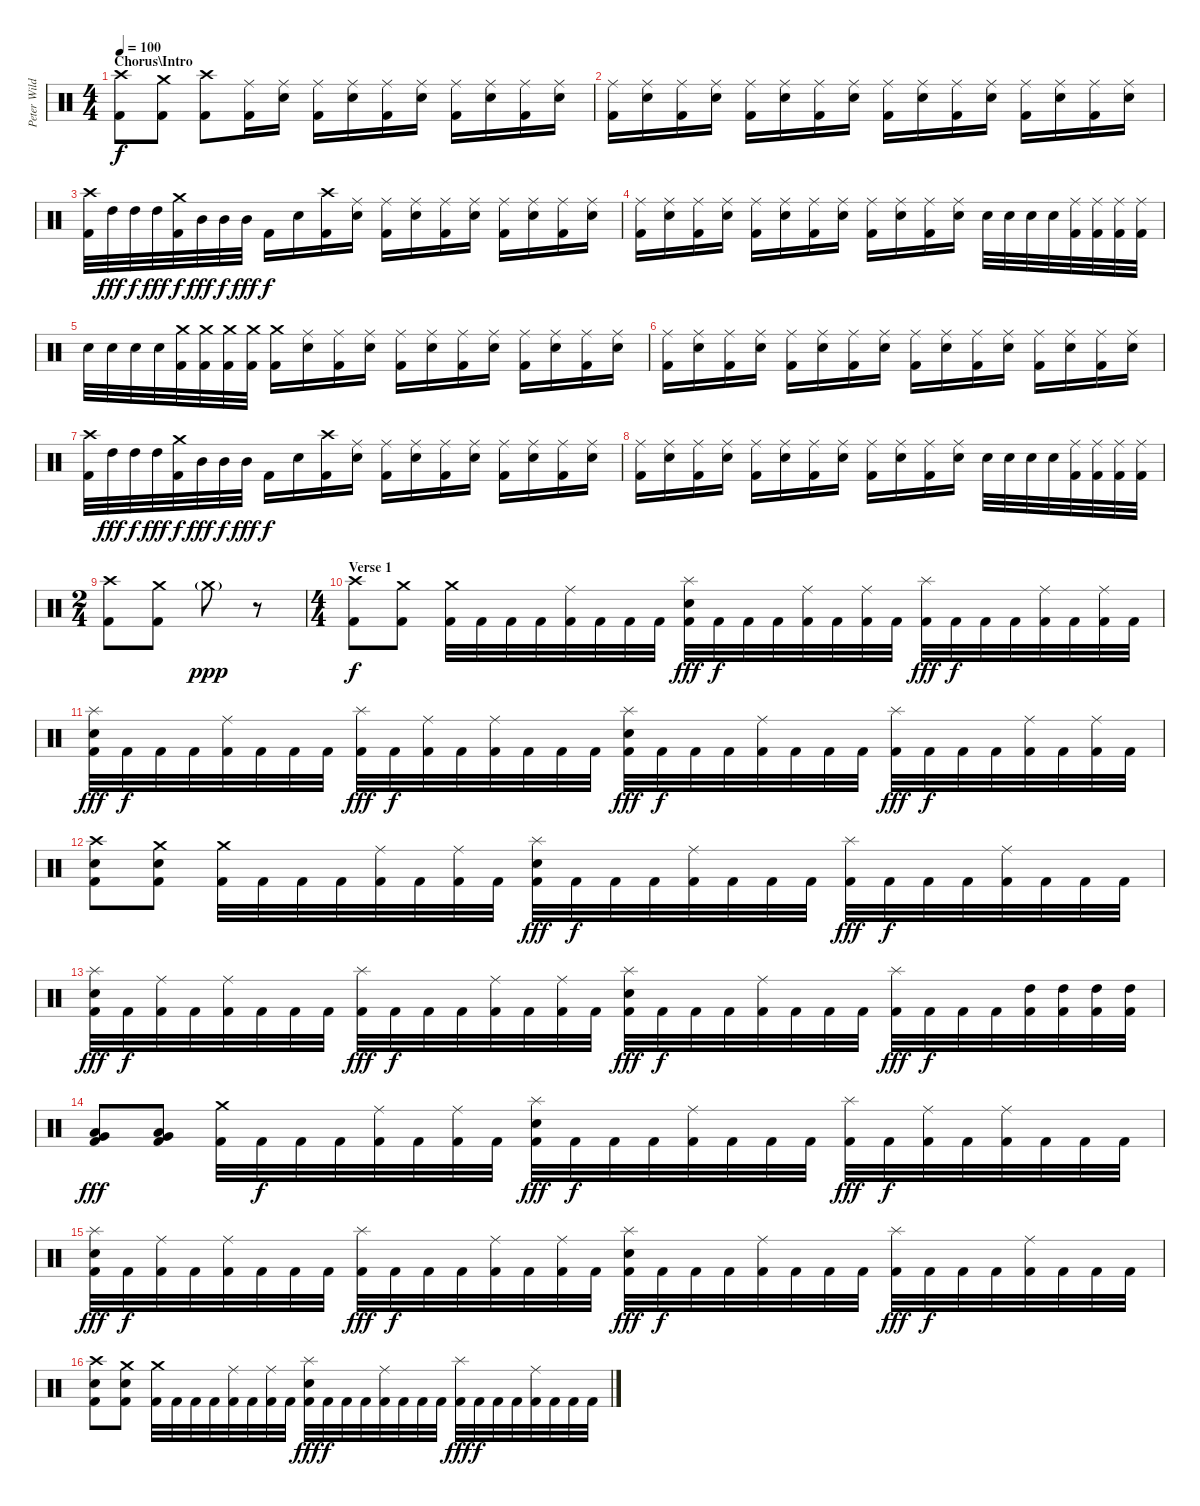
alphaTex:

\track ("Peter Wildoer" "Peter Wild") {instrument percussion}
\staff {score}
\articulation defaults
\ts (4 4)
\section ("" "Chorus\\Intro")
\tempo 100
\clef neutral
\ks c
("Crash high (hit)" "Kick (hit) 2").8{dy f} ("Crash medium (hit)" "Kick (hit) 2").8 ("Crash high (hit)" "Kick (hit) 2").8 ("Ride (middle)" "Kick (hit) 2").16 ("Ride (middle)" "Electric Snare (hit)").16 ("Ride (middle)" "Kick (hit) 2").16 ("Ride (middle)" "Electric Snare (hit)").16 ("Ride (middle)" "Kick (hit) 2").16 ("Ride (middle)" "Electric Snare (hit)").16 ("Ride (middle)" "Kick (hit) 2").16 ("Ride (middle)" "Electric Snare (hit)").16 ("Ride (middle)" "Kick (hit) 2").16 ("Ride (middle)" "Electric Snare (hit)").16 |
("Ride (middle)" "Kick (hit) 2").16 ("Ride (middle)" "Electric Snare (hit)").16 ("Ride (middle)" "Kick (hit) 2").16 ("Ride (middle)" "Electric Snare (hit)").16 ("Ride (middle)" "Kick (hit) 2").16 ("Ride (middle)" "Electric Snare (hit)").16 ("Ride (middle)" "Kick (hit) 2").16 ("Ride (middle)" "Electric Snare (hit)").16 ("Ride (middle)" "Kick (hit) 2").16 ("Ride (middle)" "Electric Snare (hit)").16 ("Ride (middle)" "Kick (hit) 2").16 ("Ride (middle)" "Electric Snare (hit)").16 ("Ride (middle)" "Kick (hit) 2").16 ("Ride (middle)" "Electric Snare (hit)").16 ("Ride (middle)" "Kick (hit) 2").16 ("Ride (middle)" "Electric Snare (hit)").16 |
("Crash high (hit)" "Kick (hit) 2").32 "High Tom (hit)".32{dy fff} "High Tom (hit)".32{dy f} "High Tom (hit)".32{dy fff} ("Crash medium (hit)" "Kick (hit) 2").32{dy f} "Mid Tom (hit)".32{dy fff} "Mid Tom (hit)".32{dy f} "Mid Tom (hit)".32{dy fff} "Kick (hit) 2".16{dy f} "Electric Snare (hit)".16 ("Crash high (hit)" "Kick (hit) 2").16 ("Ride (middle)" "Electric Snare (hit)").16 ("Ride (middle)" "Kick (hit) 2").16 ("Ride (middle)" "Electric Snare (hit)").16 ("Ride (middle)" "Kick (hit) 2").16 ("Ride (middle)" "Electric Snare (hit)").16 ("Ride (middle)" "Kick (hit) 2").16 ("Ride (middle)" "Electric Snare (hit)").16 ("Ride (middle)" "Kick (hit) 2").16 ("Ride (middle)" "Electric Snare (hit)").16 |
("Ride (middle)" "Kick (hit) 2").16 ("Ride (middle)" "Electric Snare (hit)").16 ("Ride (middle)" "Kick (hit) 2").16 ("Ride (middle)" "Electric Snare (hit)").16 ("Ride (middle)" "Kick (hit) 2").16 ("Ride (middle)" "Electric Snare (hit)").16 ("Ride (middle)" "Kick (hit) 2").16 ("Ride (middle)" "Electric Snare (hit)").16 ("Ride (middle)" "Kick (hit) 2").16 ("Ride (middle)" "Electric Snare (hit)").16 ("Ride (middle)" "Kick (hit) 2").16 ("Ride (middle)" "Electric Snare (hit)").16 "Electric Snare (hit)".32 "Electric Snare (hit)".32 "Electric Snare (hit)".32 "Electric Snare (hit)".32 ("Ride (middle)" "Kick (hit) 2").32 ("Ride (middle)" "Kick (hit) 2").32 ("Ride (middle)" "Kick (hit) 2").32 ("Ride (middle)" "Kick (hit) 2").32 |
"Electric Snare (hit)".32 "Electric Snare (hit)".32 "Electric Snare (hit)".32 "Electric Snare (hit)".32 ("Crash medium (hit)" "Kick (hit) 2").32 ("Crash medium (hit)" "Kick (hit) 2").32 ("Crash medium (hit)" "Kick (hit) 2").32 ("Crash medium (hit)" "Kick (hit) 2").32 ("Crash medium (hit)" "Kick (hit) 2").16 ("Ride (middle)" "Electric Snare (hit)").16 ("Ride (middle)" "Kick (hit) 2").16 ("Ride (middle)" "Electric Snare (hit)").16 ("Ride (middle)" "Kick (hit) 2").16 ("Ride (middle)" "Electric Snare (hit)").16 ("Ride (middle)" "Kick (hit) 2").16 ("Ride (middle)" "Electric Snare (hit)").16 ("Ride (middle)" "Kick (hit) 2").16 ("Ride (middle)" "Electric Snare (hit)").16 ("Ride (middle)" "Kick (hit) 2").16 ("Ride (middle)" "Electric Snare (hit)").16 |
("Ride (middle)" "Kick (hit) 2").16 ("Ride (middle)" "Electric Snare (hit)").16 ("Ride (middle)" "Kick (hit) 2").16 ("Ride (middle)" "Electric Snare (hit)").16 ("Ride (middle)" "Kick (hit) 2").16 ("Ride (middle)" "Electric Snare (hit)").16 ("Ride (middle)" "Kick (hit) 2").16 ("Ride (middle)" "Electric Snare (hit)").16 ("Ride (middle)" "Kick (hit) 2").16 ("Ride (middle)" "Electric Snare (hit)").16 ("Ride (middle)" "Kick (hit) 2").16 ("Ride (middle)" "Electric Snare (hit)").16 ("Ride (middle)" "Kick (hit) 2").16 ("Ride (middle)" "Electric Snare (hit)").16 ("Ride (middle)" "Kick (hit) 2").16 ("Ride (middle)" "Electric Snare (hit)").16 |
("Crash high (hit)" "Kick (hit) 2").32 "High Tom (hit)".32{dy fff} "High Tom (hit)".32{dy f} "High Tom (hit)".32{dy fff} ("Crash medium (hit)" "Kick (hit) 2").32{dy f} "Mid Tom (hit)".32{dy fff} "Mid Tom (hit)".32{dy f} "Mid Tom (hit)".32{dy fff} "Kick (hit) 2".16{dy f} "Electric Snare (hit)".16 ("Crash high (hit)" "Kick (hit) 2").16 ("Ride (middle)" "Electric Snare (hit)").16 ("Ride (middle)" "Kick (hit) 2").16 ("Ride (middle)" "Electric Snare (hit)").16 ("Ride (middle)" "Kick (hit) 2").16 ("Ride (middle)" "Electric Snare (hit)").16 ("Ride (middle)" "Kick (hit) 2").16 ("Ride (middle)" "Electric Snare (hit)").16 ("Ride (middle)" "Kick (hit) 2").16 ("Ride (middle)" "Electric Snare (hit)").16 |
("Ride (middle)" "Kick (hit) 2").16 ("Ride (middle)" "Electric Snare (hit)").16 ("Ride (middle)" "Kick (hit) 2").16 ("Ride (middle)" "Electric Snare (hit)").16 ("Ride (middle)" "Kick (hit) 2").16 ("Ride (middle)" "Electric Snare (hit)").16 ("Ride (middle)" "Kick (hit) 2").16 ("Ride (middle)" "Electric Snare (hit)").16 ("Ride (middle)" "Kick (hit) 2").16 ("Ride (middle)" "Electric Snare (hit)").16 ("Ride (middle)" "Kick (hit) 2").16 ("Ride (middle)" "Electric Snare (hit)").16 "Electric Snare (hit)".32 "Electric Snare (hit)".32 "Electric Snare (hit)".32 "Electric Snare (hit)".32 ("Ride (middle)" "Kick (hit) 2").32 ("Ride (middle)" "Kick (hit) 2").32 ("Ride (middle)" "Kick (hit) 2").32 ("Ride (middle)" "Kick (hit) 2").32 |
\ts (2 4)
("Crash high (hit)" "Kick (hit) 2").8 ("Crash medium (hit)" "Kick (hit) 2").8 "Crash medium (hit)"{g}.8{dy ppp volume 0} r.8 |
\ts (4 4)
\section ("" "Verse 1")
("Crash high (hit)" "Kick (hit) 2").8{dy f volume 16} ("Crash medium (hit)" "Kick (hit) 2").8 ("Crash medium (hit)" "Kick (hit) 2").32 "Kick (hit) 2".32 "Kick (hit) 2".32 "Kick (hit) 2".32 ("Ride (middle)" "Kick (hit) 2").32 "Kick (hit) 2".32 "Kick (hit) 2".32 "Kick (hit) 2".32 ("Splash (hit)" "Electric Snare (hit)" "Kick (hit) 2").32{dy fff} "Kick (hit) 2".32{dy f} "Kick (hit) 2".32 "Kick (hit) 2".32 ("Ride (middle)" "Kick (hit) 2").32 "Kick (hit) 2".32 ("Ride (middle)" "Kick (hit) 2").32 "Kick (hit) 2".32 ("Splash (hit)" "Kick (hit) 2").32{dy fff} "Kick (hit) 2".32{dy f} "Kick (hit) 2".32 "Kick (hit) 2".32 ("Ride (middle)" "Kick (hit) 2").32 "Kick (hit) 2".32 ("Ride (middle)" "Kick (hit) 2").32 "Kick (hit) 2".32 |
("Splash (hit)" "Electric Snare (hit)" "Kick (hit) 2").32{dy fff} "Kick (hit) 2".32{dy f} "Kick (hit) 2".32 "Kick (hit) 2".32 ("Ride (middle)" "Kick (hit) 2").32 "Kick (hit) 2".32 "Kick (hit) 2".32 "Kick (hit) 2".32 ("Splash (hit)" "Kick (hit) 2").32{dy fff} "Kick (hit) 2".32{dy f} ("Ride (middle)" "Kick (hit) 2").32 "Kick (hit) 2".32 ("Ride (middle)" "Kick (hit) 2").32 "Kick (hit) 2".32 "Kick (hit) 2".32 "Kick (hit) 2".32 ("Splash (hit)" "Electric Snare (hit)" "Kick (hit) 2").32{dy fff} "Kick (hit) 2".32{dy f} "Kick (hit) 2".32 "Kick (hit) 2".32 ("Ride (middle)" "Kick (hit) 2").32 "Kick (hit) 2".32 "Kick (hit) 2".32 "Kick (hit) 2".32 ("Splash (hit)" "Kick (hit) 2").32{dy fff} "Kick (hit) 2".32{dy f} "Kick (hit) 2".32 "Kick (hit) 2".32 ("Ride (middle)" "Kick (hit) 2").32 "Kick (hit) 2".32 ("Ride (middle)" "Kick (hit) 2").32 "Kick (hit) 2".32 |
("Crash high (hit)" "Electric Snare (hit)" "Kick (hit) 2").8 ("Crash medium (hit)" "Electric Snare (hit)" "Kick (hit) 2").8 ("Crash medium (hit)" "Kick (hit) 2").32 "Kick (hit) 2".32 "Kick (hit) 2".32 "Kick (hit) 2".32 ("Ride (middle)" "Kick (hit) 2").32 "Kick (hit) 2".32 ("Ride (middle)" "Kick (hit) 2").32 "Kick (hit) 2".32 ("Splash (hit)" "Electric Snare (hit)" "Kick (hit) 2").32{dy fff} "Kick (hit) 2".32{dy f} "Kick (hit) 2".32 "Kick (hit) 2".32 ("Ride (middle)" "Kick (hit) 2").32 "Kick (hit) 2".32 "Kick (hit) 2".32 "Kick (hit) 2".32 ("Splash (hit)" "Kick (hit) 2").32{dy fff} "Kick (hit) 2".32{dy f} "Kick (hit) 2".32 "Kick (hit) 2".32 ("Ride (middle)" "Kick (hit) 2").32 "Kick (hit) 2".32 "Kick (hit) 2".32 "Kick (hit) 2".32 |
("Splash (hit)" "Electric Snare (hit)" "Kick (hit) 2").32{dy fff} "Kick (hit) 2".32{dy f} ("Ride (middle)" "Kick (hit) 2").32 "Kick (hit) 2".32 ("Ride (middle)" "Kick (hit) 2").32 "Kick (hit) 2".32 "Kick (hit) 2".32 "Kick (hit) 2".32 ("Splash (hit)" "Kick (hit) 2").32{dy fff} "Kick (hit) 2".32{dy f} "Kick (hit) 2".32 "Kick (hit) 2".32 ("Ride (middle)" "Kick (hit) 2").32 "Kick (hit) 2".32 ("Ride (middle)" "Kick (hit) 2").32 "Kick (hit) 2".32 ("Splash (hit)" "Electric Snare (hit)" "Kick (hit) 2").32{dy fff} "Kick (hit) 2".32{dy f} "Kick (hit) 2".32 "Kick (hit) 2".32 ("Ride (middle)" "Kick (hit) 2").32 "Kick (hit) 2".32 "Kick (hit) 2".32 "Kick (hit) 2".32 ("Splash (hit)" "Kick (hit) 2").32{dy fff} "Kick (hit) 2".32{dy f} "Kick (hit) 2".32 "Kick (hit) 2".32 ("High Tom (hit)" "Kick (hit) 2").32 ("High Tom (hit)" "Kick (hit) 2").32 ("High Tom (hit)" "Kick (hit) 2").32 ("High Tom (hit)" "Kick (hit) 2").32 |
("Low Tom (hit)" "Very Low Tom (hit)" "Kick (hit) 2").8{dy fff} ("Low Floor Tom (hit)" "Very Low Tom (hit)" "Kick (hit) 2").8 ("Crash medium (hit)" "Kick (hit) 2").32 "Kick (hit) 2".32{dy f} "Kick (hit) 2".32 "Kick (hit) 2".32 ("Ride (middle)" "Kick (hit) 2").32 "Kick (hit) 2".32 ("Ride (middle)" "Kick (hit) 2").32 "Kick (hit) 2".32 ("Splash (hit)" "Electric Snare (hit)" "Kick (hit) 2").32{dy fff} "Kick (hit) 2".32{dy f} "Kick (hit) 2".32 "Kick (hit) 2".32 ("Ride (middle)" "Kick (hit) 2").32 "Kick (hit) 2".32 "Kick (hit) 2".32 "Kick (hit) 2".32 ("Splash (hit)" "Kick (hit) 2").32{dy fff} "Kick (hit) 2".32{dy f} ("Ride (middle)" "Kick (hit) 2").32 "Kick (hit) 2".32 ("Ride (middle)" "Kick (hit) 2").32 "Kick (hit) 2".32 "Kick (hit) 2".32 "Kick (hit) 2".32 |
("Splash (hit)" "Electric Snare (hit)" "Kick (hit) 2").32{dy fff} "Kick (hit) 2".32{dy f} ("Ride (middle)" "Kick (hit) 2").32 "Kick (hit) 2".32 ("Ride (middle)" "Kick (hit) 2").32 "Kick (hit) 2".32 "Kick (hit) 2".32 "Kick (hit) 2".32 ("Splash (hit)" "Kick (hit) 2").32{dy fff} "Kick (hit) 2".32{dy f} "Kick (hit) 2".32 "Kick (hit) 2".32 ("Ride (middle)" "Kick (hit) 2").32 "Kick (hit) 2".32 ("Ride (middle)" "Kick (hit) 2").32 "Kick (hit) 2".32 ("Splash (hit)" "Electric Snare (hit)" "Kick (hit) 2").32{dy fff} "Kick (hit) 2".32{dy f} "Kick (hit) 2".32 "Kick (hit) 2".32 ("Ride (middle)" "Kick (hit) 2").32 "Kick (hit) 2".32 "Kick (hit) 2".32 "Kick (hit) 2".32 ("Splash (hit)" "Kick (hit) 2").32{dy fff} "Kick (hit) 2".32{dy f} "Kick (hit) 2".32 "Kick (hit) 2".32 ("Ride (middle)" "Kick (hit) 2").32 "Kick (hit) 2".32 "Kick (hit) 2".32 "Kick (hit) 2".32 |
("Crash high (hit)" "Electric Snare (hit)" "Kick (hit) 2").8 ("Crash medium (hit)" "Electric Snare (hit)" "Kick (hit) 2").8 ("Crash medium (hit)" "Kick (hit) 2").32 "Kick (hit) 2".32 "Kick (hit) 2".32 "Kick (hit) 2".32 ("Ride (middle)" "Kick (hit) 2").32 "Kick (hit) 2".32 ("Ride (middle)" "Kick (hit) 2").32 "Kick (hit) 2".32 ("Splash (hit)" "Electric Snare (hit)" "Kick (hit) 2").32{dy fff} "Kick (hit) 2".32{dy f} "Kick (hit) 2".32 "Kick (hit) 2".32 ("Ride (middle)" "Kick (hit) 2").32 "Kick (hit) 2".32 "Kick (hit) 2".32 "Kick (hit) 2".32 ("Splash (hit)" "Kick (hit) 2").32{dy fff} "Kick (hit) 2".32{dy f} "Kick (hit) 2".32 "Kick (hit) 2".32 ("Ride (middle)" "Kick (hit) 2").32 "Kick (hit) 2".32 "Kick (hit) 2".32 "Kick (hit) 2".32
